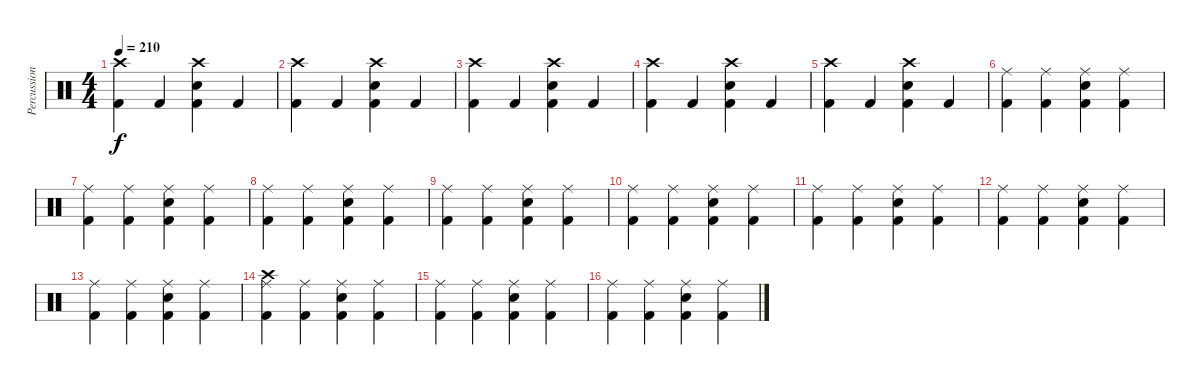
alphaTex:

\track ("Percussion" "Percussion") {instrument percussion}
\staff {score}
\articulation defaults
\ts (4 4)
\tempo 210
\clef neutral
\ks c
("Crash high (hit)" "Kick (hit) 2").4{dy f} "Kick (hit) 2".4 ("Crash high (hit)" "Snare (hit) 2" "Kick (hit) 2").4 "Kick (hit) 2".4 |
("Crash high (hit)" "Kick (hit) 2").4 "Kick (hit) 2".4 ("Crash high (hit)" "Snare (hit) 2" "Kick (hit) 2").4 "Kick (hit) 2".4 |
("Crash high (hit)" "Kick (hit) 2").4 "Kick (hit) 2".4 ("Crash high (hit)" "Snare (hit) 2" "Kick (hit) 2").4 "Kick (hit) 2".4 |
("Crash high (hit)" "Kick (hit) 2").4 "Kick (hit) 2".4 ("Crash high (hit)" "Snare (hit) 2" "Kick (hit) 2").4 "Kick (hit) 2".4 |
("Crash high (hit)" "Kick (hit) 2").4 "Kick (hit) 2".4 ("Crash high (hit)" "Snare (hit) 2" "Kick (hit) 2").4 "Kick (hit) 2".4 |
("Ride (middle)" "Kick (hit) 2").4 ("Ride (middle)" "Kick (hit) 2").4 ("Ride (middle)" "Snare (hit) 2" "Kick (hit) 2").4 ("Ride (middle)" "Kick (hit) 2").4 |
("Ride (middle)" "Kick (hit) 2").4 ("Ride (middle)" "Kick (hit) 2").4 ("Ride (middle)" "Snare (hit) 2" "Kick (hit) 2").4 ("Ride (middle)" "Kick (hit) 2").4 |
("Ride (middle)" "Kick (hit) 2").4 ("Ride (middle)" "Kick (hit) 2").4 ("Ride (middle)" "Snare (hit) 2" "Kick (hit) 2").4 ("Ride (middle)" "Kick (hit) 2").4 |
("Ride (middle)" "Kick (hit) 2").4 ("Ride (middle)" "Kick (hit) 2").4 ("Ride (middle)" "Snare (hit) 2" "Kick (hit) 2").4 ("Ride (middle)" "Kick (hit) 2").4 |
("Ride (middle)" "Kick (hit) 2").4 ("Ride (middle)" "Kick (hit) 2").4 ("Ride (middle)" "Snare (hit) 2" "Kick (hit) 2").4 ("Ride (middle)" "Kick (hit) 2").4 |
("Ride (middle)" "Kick (hit) 2").4 ("Ride (middle)" "Kick (hit) 2").4 ("Ride (middle)" "Snare (hit) 2" "Kick (hit) 2").4 ("Ride (middle)" "Kick (hit) 2").4 |
("Ride (middle)" "Kick (hit) 2").4 ("Ride (middle)" "Kick (hit) 2").4 ("Ride (middle)" "Snare (hit) 2" "Kick (hit) 2").4 ("Ride (middle)" "Kick (hit) 2").4 |
("Ride (middle)" "Kick (hit) 2").4 ("Ride (middle)" "Kick (hit) 2").4 ("Ride (middle)" "Snare (hit) 2" "Kick (hit) 2").4 ("Ride (middle)" "Kick (hit) 2").4 |
("Crash high (hit)" "Ride (middle)" "Kick (hit) 2").4 ("Ride (middle)" "Kick (hit) 2").4 ("Ride (middle)" "Snare (hit) 2" "Kick (hit) 2").4 ("Ride (middle)" "Kick (hit) 2").4 |
("Ride (middle)" "Kick (hit) 2").4 ("Ride (middle)" "Kick (hit) 2").4 ("Ride (middle)" "Snare (hit) 2" "Kick (hit) 2").4 ("Ride (middle)" "Kick (hit) 2").4 |
("Ride (middle)" "Kick (hit) 2").4 ("Ride (middle)" "Kick (hit) 2").4 ("Ride (middle)" "Snare (hit) 2" "Kick (hit) 2").4 ("Ride (middle)" "Kick (hit) 2").4
